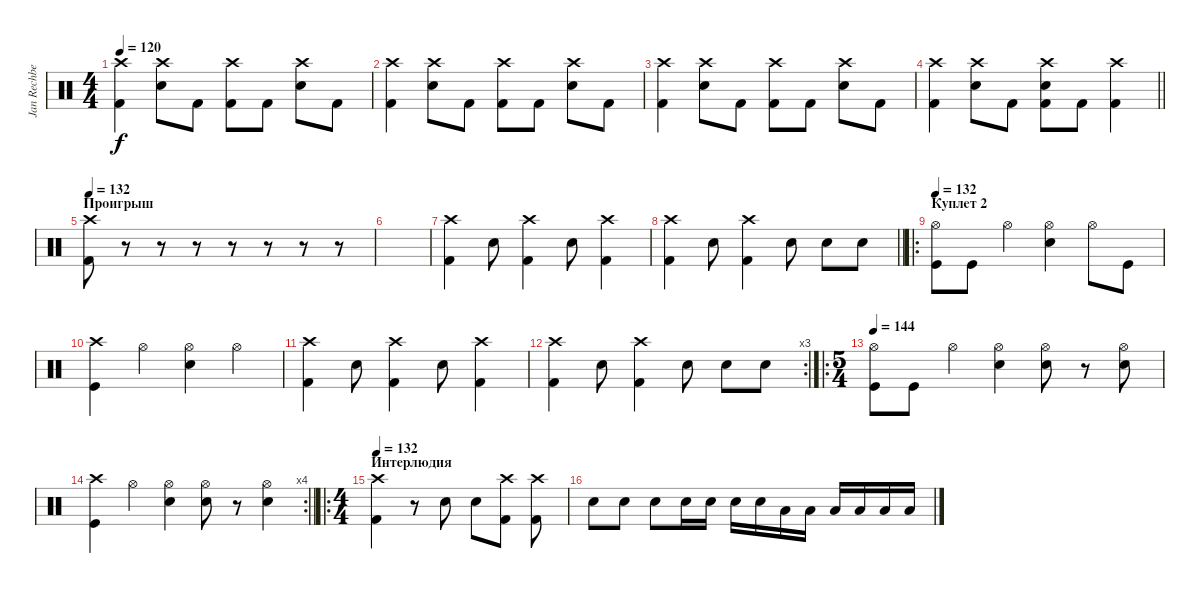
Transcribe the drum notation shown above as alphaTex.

\track ("Jan Rechberger" "Jan Rechbe") {instrument percussion}
\staff {score}
\articulation defaults
\ts (4 4)
\tempo 120
\clef neutral
\ks c
("Crash high (hit)" "Kick (hit) 2").4{dy f} ("Crash high (hit)" "Electric Snare (hit)").8 "Kick (hit) 2".8 ("Crash high (hit)" "Kick (hit) 2").8 "Kick (hit) 2".8 ("Crash high (hit)" "Electric Snare (hit)").8 "Kick (hit) 2".8 |
("Crash high (hit)" "Kick (hit) 2").4 ("Crash high (hit)" "Electric Snare (hit)").8 "Kick (hit) 2".8 ("Crash high (hit)" "Kick (hit) 2").8 "Kick (hit) 2".8 ("Crash high (hit)" "Electric Snare (hit)").8 "Kick (hit) 2".8 |
("Crash high (hit)" "Kick (hit) 2").4 ("Crash high (hit)" "Electric Snare (hit)").8 "Kick (hit) 2".8 ("Crash high (hit)" "Kick (hit) 2").8 "Kick (hit) 2".8 ("Crash high (hit)" "Electric Snare (hit)").8 "Kick (hit) 2".8 |
\barLineRight lightlight
("Crash high (hit)" "Kick (hit) 2").4 ("Crash high (hit)" "Electric Snare (hit)").8 "Kick (hit) 2".8 ("Crash high (hit)" "Electric Snare (hit)" "Kick (hit) 2").8 "Kick (hit) 2".8 ("Crash high (hit)" "Kick (hit) 2").4 |
\section ("" "Проигрыш")
\tempo 132
("Crash high (hit)" "Kick (hit) 2").8 r.8 r.8 r.8 r.8 r.8 r.8 r.8 |
|
("Kick (hit) 2" "Crash high (hit)").4 "Electric Snare (hit)".8 ("Kick (hit) 2" "Crash high (hit)").4 "Electric Snare (hit)".8 ("Kick (hit) 2" "Crash high (hit)").4 |
\barLineRight lightlight
("Kick (hit) 2" "Crash high (hit)").4 "Electric Snare (hit)".8 ("Kick (hit) 2" "Crash high (hit)").4 "Electric Snare (hit)".8 "Electric Snare (hit)".8 "Electric Snare (hit)".8 |
\ro
\section ("" "Куплет 2")
\tempo 132
("Hi-Hat (open)" "Kick (hit)").8 "Kick (hit)".8 "Hi-Hat (open)".4 ("Hi-Hat (open)" "Electric Snare (hit)").4 "Hi-Hat (open)".8 "Kick (hit)".8 |
("Crash high (hit)" "Kick (hit)").4 "Hi-Hat (open)".4 ("Hi-Hat (open)" "Electric Snare (hit)").4 "Hi-Hat (open)".4 |
("Kick (hit) 2" "Crash high (hit)").4 "Electric Snare (hit)".8 ("Kick (hit) 2" "Crash high (hit)").4 "Electric Snare (hit)".8 ("Kick (hit) 2" "Crash high (hit)").4 |
\rc 3
("Kick (hit) 2" "Crash high (hit)").4 "Electric Snare (hit)".8 ("Kick (hit) 2" "Crash high (hit)").4 "Electric Snare (hit)".8 "Electric Snare (hit)".8 "Electric Snare (hit)".8 |
\ro
\ts (5 4)
\tempo 144
("Hi-Hat (open)" "Kick (hit)").8 "Kick (hit)".8 "Hi-Hat (open)".4 ("Hi-Hat (open)" "Electric Snare (hit)").4 ("Hi-Hat (open)" "Electric Snare (hit)").8 r.8 ("Electric Snare (hit)" "Hi-Hat (open)").8 |
\rc 4
\barLineRight lightlight
("Crash high (hit)" "Kick (hit)").4 "Hi-Hat (open)".4 ("Hi-Hat (open)" "Electric Snare (hit)").4 ("Hi-Hat (open)" "Electric Snare (hit)").8 r.8 ("Hi-Hat (open)" "Electric Snare (hit)").4 |
\ro
\ts (4 4)
\section ("" "Интерлюдия")
\tempo 132
("Crash high (hit)" "Kick (hit) 2").4 r.8 "Electric Snare (hit)".8 "Electric Snare (hit)".8 ("Crash high (hit)" "Kick (hit) 2").8 ("Crash high (hit)" "Kick (hit) 2").8 |
"Electric Snare (hit)".8 "Electric Snare (hit)".8 "Electric Snare (hit)".8 "Electric Snare (hit)".16 "Electric Snare (hit)".16 "Electric Snare (hit)".16 "Electric Snare (hit)".16 "Low Floor Tom (hit)".16 "Low Floor Tom (hit)".16 "Low Floor Tom (hit)".16 "Low Floor Tom (hit)".16 "Low Floor Tom (hit)".16 "Low Floor Tom (hit)".16
